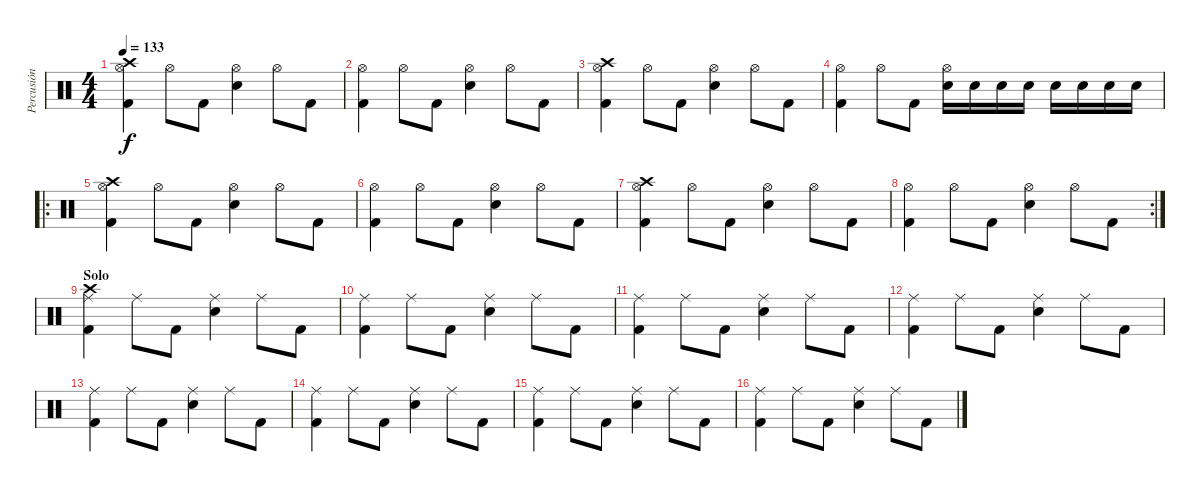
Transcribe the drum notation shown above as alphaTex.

\track ("Percusión" "Percusión") {instrument percussion}
\staff {score}
\articulation defaults
\ts (4 4)
\tempo 133
\clef neutral
\ks c
("Crash high (hit)" "Hi-Hat (open)" "Kick (hit) 2").4{dy f} "Hi-Hat (open)".8 "Kick (hit) 2".8 ("Electric Snare (hit)" "Hi-Hat (open)").4 "Hi-Hat (open)".8 "Kick (hit) 2".8 |
("Hi-Hat (open)" "Kick (hit) 2").4 "Hi-Hat (open)".8 "Kick (hit) 2".8 ("Electric Snare (hit)" "Hi-Hat (open)").4 "Hi-Hat (open)".8 "Kick (hit) 2".8 |
("Crash high (hit)" "Hi-Hat (open)" "Kick (hit) 2").4 "Hi-Hat (open)".8 "Kick (hit) 2".8 ("Electric Snare (hit)" "Hi-Hat (open)").4 "Hi-Hat (open)".8 "Kick (hit) 2".8 |
("Hi-Hat (open)" "Kick (hit) 2").4 "Hi-Hat (open)".8 "Kick (hit) 2".8 ("Electric Snare (hit)" "Hi-Hat (open)").16 "Electric Snare (hit)".16 "Electric Snare (hit)".16 "Electric Snare (hit)".16 "Electric Snare (hit)".16 "Electric Snare (hit)".16 "Electric Snare (hit)".16 "Electric Snare (hit)".16 |
\ro
("Crash high (hit)" "Hi-Hat (open)" "Kick (hit) 2").4 "Hi-Hat (open)".8 "Kick (hit) 2".8 ("Electric Snare (hit)" "Hi-Hat (open)").4 "Hi-Hat (open)".8 "Kick (hit) 2".8 |
("Hi-Hat (open)" "Kick (hit) 2").4 "Hi-Hat (open)".8 "Kick (hit) 2".8 ("Electric Snare (hit)" "Hi-Hat (open)").4 "Hi-Hat (open)".8 "Kick (hit) 2".8 |
("Crash high (hit)" "Hi-Hat (open)" "Kick (hit) 2").4 "Hi-Hat (open)".8 "Kick (hit) 2".8 ("Electric Snare (hit)" "Hi-Hat (open)").4 "Hi-Hat (open)".8 "Kick (hit) 2".8 |
\rc 2
("Hi-Hat (open)" "Kick (hit) 2").4 "Hi-Hat (open)".8 "Kick (hit) 2".8 ("Electric Snare (hit)" "Hi-Hat (open)").4 "Hi-Hat (open)".8 "Kick (hit) 2".8 |
\section ("" "Solo")
("Crash high (hit)" "Ride (middle)" "Kick (hit) 2").4 "Ride (middle)".8 "Kick (hit) 2".8 ("Electric Snare (hit)" "Ride (middle)").4 "Ride (middle)".8 "Kick (hit) 2".8 |
("Ride (middle)" "Kick (hit) 2").4 "Ride (middle)".8 "Kick (hit) 2".8 ("Electric Snare (hit)" "Ride (middle)").4 "Ride (middle)".8 "Kick (hit) 2".8 |
("Ride (middle)" "Kick (hit) 2").4 "Ride (middle)".8 "Kick (hit) 2".8 ("Electric Snare (hit)" "Ride (middle)").4 "Ride (middle)".8 "Kick (hit) 2".8 |
("Ride (middle)" "Kick (hit) 2").4 "Ride (middle)".8 "Kick (hit) 2".8 ("Electric Snare (hit)" "Ride (middle)").4 "Ride (middle)".8 "Kick (hit) 2".8 |
("Ride (middle)" "Kick (hit) 2").4 "Ride (middle)".8 "Kick (hit) 2".8 ("Electric Snare (hit)" "Ride (middle)").4 "Ride (middle)".8 "Kick (hit) 2".8 |
("Ride (middle)" "Kick (hit) 2").4 "Ride (middle)".8 "Kick (hit) 2".8 ("Electric Snare (hit)" "Ride (middle)").4 "Ride (middle)".8 "Kick (hit) 2".8 |
("Ride (middle)" "Kick (hit) 2").4 "Ride (middle)".8 "Kick (hit) 2".8 ("Electric Snare (hit)" "Ride (middle)").4 "Ride (middle)".8 "Kick (hit) 2".8 |
("Ride (middle)" "Kick (hit) 2").4 "Ride (middle)".8 "Kick (hit) 2".8 ("Electric Snare (hit)" "Ride (middle)").4 "Ride (middle)".8 "Kick (hit) 2".8
